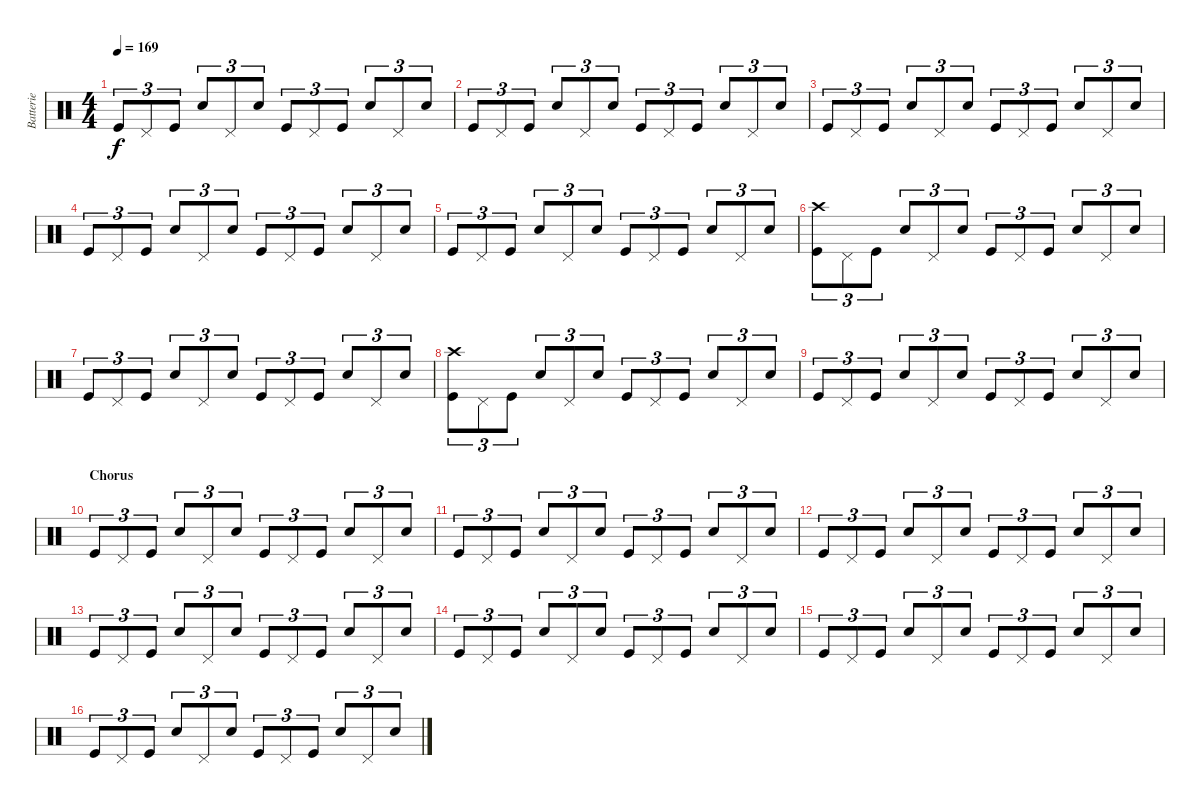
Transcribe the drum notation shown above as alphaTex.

\track ("Batterie" "Batterie") {instrument percussion}
\staff {score}
\articulation defaults
\ts (4 4)
\tempo 169
\clef neutral
\ks c "Kick (hit)".8{tu (3 2) dy f} "Pedal Hi-Hat (hit)".8{tu (3 2)} "Kick (hit)".8{tu (3 2)} "Snare (hit) 2".8{tu (3 2)} "Pedal Hi-Hat (hit)".8{tu (3 2)} "Snare (hit) 2".8{tu (3 2)} "Kick (hit)".8{tu (3 2)} "Pedal Hi-Hat (hit)".8{tu (3 2)} "Kick (hit)".8{tu (3 2)} "Snare (hit) 2".8{tu (3 2)} "Pedal Hi-Hat (hit)".8{tu (3 2)} "Snare (hit) 2".8{tu (3 2)}
|
"Kick (hit)".8{tu (3 2)} "Pedal Hi-Hat (hit)".8{tu (3 2)} "Kick (hit)".8{tu (3 2)} "Snare (hit) 2".8{tu (3 2)} "Pedal Hi-Hat (hit)".8{tu (3 2)} "Snare (hit) 2".8{tu (3 2)} "Kick (hit)".8{tu (3 2)} "Pedal Hi-Hat (hit)".8{tu (3 2)} "Kick (hit)".8{tu (3 2)} "Snare (hit) 2".8{tu (3 2)} "Pedal Hi-Hat (hit)".8{tu (3 2)} "Snare (hit) 2".8{tu (3 2)} |
"Kick (hit)".8{tu (3 2)} "Pedal Hi-Hat (hit)".8{tu (3 2)} "Kick (hit)".8{tu (3 2)} "Snare (hit) 2".8{tu (3 2)} "Pedal Hi-Hat (hit)".8{tu (3 2)} "Snare (hit) 2".8{tu (3 2)} "Kick (hit)".8{tu (3 2)} "Pedal Hi-Hat (hit)".8{tu (3 2)} "Kick (hit)".8{tu (3 2)} "Snare (hit) 2".8{tu (3 2)} "Pedal Hi-Hat (hit)".8{tu (3 2)} "Snare (hit) 2".8{tu (3 2)} |
"Kick (hit)".8{tu (3 2)} "Pedal Hi-Hat (hit)".8{tu (3 2)} "Kick (hit)".8{tu (3 2)} "Snare (hit) 2".8{tu (3 2)} "Pedal Hi-Hat (hit)".8{tu (3 2)} "Snare (hit) 2".8{tu (3 2)} "Kick (hit)".8{tu (3 2)} "Pedal Hi-Hat (hit)".8{tu (3 2)} "Kick (hit)".8{tu (3 2)} "Snare (hit) 2".8{tu (3 2)} "Pedal Hi-Hat (hit)".8{tu (3 2)} "Snare (hit) 2".8{tu (3 2)} |
"Kick (hit)".8{tu (3 2)} "Pedal Hi-Hat (hit)".8{tu (3 2)} "Kick (hit)".8{tu (3 2)} "Snare (hit) 2".8{tu (3 2)} "Pedal Hi-Hat (hit)".8{tu (3 2)} "Snare (hit) 2".8{tu (3 2)} "Kick (hit)".8{tu (3 2)} "Pedal Hi-Hat (hit)".8{tu (3 2)} "Kick (hit)".8{tu (3 2)} "Snare (hit) 2".8{tu (3 2)} "Pedal Hi-Hat (hit)".8{tu (3 2)} "Snare (hit) 2".8{tu (3 2)} |
("Crash high (hit)" "Kick (hit)").8{tu (3 2)} "Pedal Hi-Hat (hit)".8{tu (3 2)} "Kick (hit)".8{tu (3 2)} "Snare (hit) 2".8{tu (3 2)} "Pedal Hi-Hat (hit)".8{tu (3 2)} "Snare (hit) 2".8{tu (3 2)} "Kick (hit)".8{tu (3 2)} "Pedal Hi-Hat (hit)".8{tu (3 2)} "Kick (hit)".8{tu (3 2)} "Snare (hit) 2".8{tu (3 2)} "Pedal Hi-Hat (hit)".8{tu (3 2)} "Snare (hit) 2".8{tu (3 2)} |
"Kick (hit)".8{tu (3 2)} "Pedal Hi-Hat (hit)".8{tu (3 2)} "Kick (hit)".8{tu (3 2)} "Snare (hit) 2".8{tu (3 2)} "Pedal Hi-Hat (hit)".8{tu (3 2)} "Snare (hit) 2".8{tu (3 2)} "Kick (hit)".8{tu (3 2)} "Pedal Hi-Hat (hit)".8{tu (3 2)} "Kick (hit)".8{tu (3 2)} "Snare (hit) 2".8{tu (3 2)} "Pedal Hi-Hat (hit)".8{tu (3 2)} "Snare (hit) 2".8{tu (3 2)} |
("Crash high (hit)" "Kick (hit)").8{tu (3 2)} "Pedal Hi-Hat (hit)".8{tu (3 2)} "Kick (hit)".8{tu (3 2)} "Snare (hit) 2".8{tu (3 2)} "Pedal Hi-Hat (hit)".8{tu (3 2)} "Snare (hit) 2".8{tu (3 2)} "Kick (hit)".8{tu (3 2)} "Pedal Hi-Hat (hit)".8{tu (3 2)} "Kick (hit)".8{tu (3 2)} "Snare (hit) 2".8{tu (3 2)} "Pedal Hi-Hat (hit)".8{tu (3 2)} "Snare (hit) 2".8{tu (3 2)} |
"Kick (hit)".8{tu (3 2)} "Pedal Hi-Hat (hit)".8{tu (3 2)} "Kick (hit)".8{tu (3 2)} "Snare (hit) 2".8{tu (3 2)} "Pedal Hi-Hat (hit)".8{tu (3 2)} "Snare (hit) 2".8{tu (3 2)} "Kick (hit)".8{tu (3 2)} "Pedal Hi-Hat (hit)".8{tu (3 2)} "Kick (hit)".8{tu (3 2)} "Snare (hit) 2".8{tu (3 2)} "Pedal Hi-Hat (hit)".8{tu (3 2)} "Snare (hit) 2".8{tu (3 2)} |
\section ("" "Chorus")
"Kick (hit)".8{tu (3 2)} "Pedal Hi-Hat (hit)".8{tu (3 2)} "Kick (hit)".8{tu (3 2)} "Snare (hit) 2".8{tu (3 2)} "Pedal Hi-Hat (hit)".8{tu (3 2)} "Snare (hit) 2".8{tu (3 2)} "Kick (hit)".8{tu (3 2)} "Pedal Hi-Hat (hit)".8{tu (3 2)} "Kick (hit)".8{tu (3 2)} "Snare (hit) 2".8{tu (3 2)} "Pedal Hi-Hat (hit)".8{tu (3 2)} "Snare (hit) 2".8{tu (3 2)} |
"Kick (hit)".8{tu (3 2)} "Pedal Hi-Hat (hit)".8{tu (3 2)} "Kick (hit)".8{tu (3 2)} "Snare (hit) 2".8{tu (3 2)} "Pedal Hi-Hat (hit)".8{tu (3 2)} "Snare (hit) 2".8{tu (3 2)} "Kick (hit)".8{tu (3 2)} "Pedal Hi-Hat (hit)".8{tu (3 2)} "Kick (hit)".8{tu (3 2)} "Snare (hit) 2".8{tu (3 2)} "Pedal Hi-Hat (hit)".8{tu (3 2)} "Snare (hit) 2".8{tu (3 2)} |
"Kick (hit)".8{tu (3 2)} "Pedal Hi-Hat (hit)".8{tu (3 2)} "Kick (hit)".8{tu (3 2)} "Snare (hit) 2".8{tu (3 2)} "Pedal Hi-Hat (hit)".8{tu (3 2)} "Snare (hit) 2".8{tu (3 2)} "Kick (hit)".8{tu (3 2)} "Pedal Hi-Hat (hit)".8{tu (3 2)} "Kick (hit)".8{tu (3 2)} "Snare (hit) 2".8{tu (3 2)} "Pedal Hi-Hat (hit)".8{tu (3 2)} "Snare (hit) 2".8{tu (3 2)} |
"Kick (hit)".8{tu (3 2)} "Pedal Hi-Hat (hit)".8{tu (3 2)} "Kick (hit)".8{tu (3 2)} "Snare (hit) 2".8{tu (3 2)} "Pedal Hi-Hat (hit)".8{tu (3 2)} "Snare (hit) 2".8{tu (3 2)} "Kick (hit)".8{tu (3 2)} "Pedal Hi-Hat (hit)".8{tu (3 2)} "Kick (hit)".8{tu (3 2)} "Snare (hit) 2".8{tu (3 2)} "Pedal Hi-Hat (hit)".8{tu (3 2)} "Snare (hit) 2".8{tu (3 2)} |
"Kick (hit)".8{tu (3 2)} "Pedal Hi-Hat (hit)".8{tu (3 2)} "Kick (hit)".8{tu (3 2)} "Snare (hit) 2".8{tu (3 2)} "Pedal Hi-Hat (hit)".8{tu (3 2)} "Snare (hit) 2".8{tu (3 2)} "Kick (hit)".8{tu (3 2)} "Pedal Hi-Hat (hit)".8{tu (3 2)} "Kick (hit)".8{tu (3 2)} "Snare (hit) 2".8{tu (3 2)} "Pedal Hi-Hat (hit)".8{tu (3 2)} "Snare (hit) 2".8{tu (3 2)} |
"Kick (hit)".8{tu (3 2)} "Pedal Hi-Hat (hit)".8{tu (3 2)} "Kick (hit)".8{tu (3 2)} "Snare (hit) 2".8{tu (3 2)} "Pedal Hi-Hat (hit)".8{tu (3 2)} "Snare (hit) 2".8{tu (3 2)} "Kick (hit)".8{tu (3 2)} "Pedal Hi-Hat (hit)".8{tu (3 2)} "Kick (hit)".8{tu (3 2)} "Snare (hit) 2".8{tu (3 2)} "Pedal Hi-Hat (hit)".8{tu (3 2)} "Snare (hit) 2".8{tu (3 2)} |
"Kick (hit)".8{tu (3 2)} "Pedal Hi-Hat (hit)".8{tu (3 2)} "Kick (hit)".8{tu (3 2)} "Snare (hit) 2".8{tu (3 2)} "Pedal Hi-Hat (hit)".8{tu (3 2)} "Snare (hit) 2".8{tu (3 2)} "Kick (hit)".8{tu (3 2)} "Pedal Hi-Hat (hit)".8{tu (3 2)} "Kick (hit)".8{tu (3 2)} "Snare (hit) 2".8{tu (3 2)} "Pedal Hi-Hat (hit)".8{tu (3 2)} "Snare (hit) 2".8{tu (3 2)}
